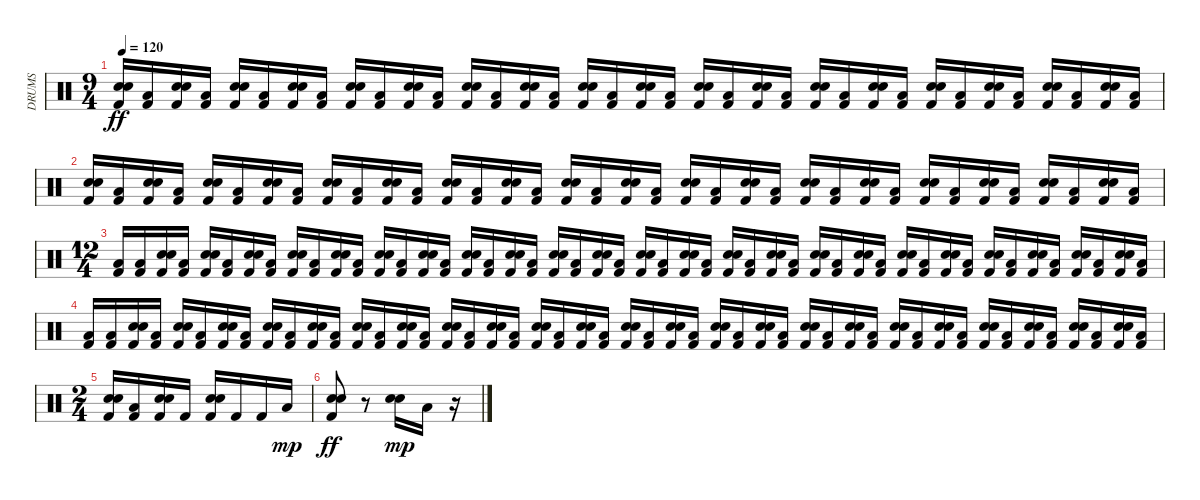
\track ("DRUMS" "DRUMS") {instrument percussion}
\staff {score}
\articulation defaults
\ts (9 4)
\tempo 120
\clef neutral
\ks c
("Electric Snare (hit)" "Hand Clap (hit)" "Kick (hit) 2").16{dy ff} ("Low Tom (hit)" "Kick (hit) 2").16 ("Electric Snare (hit)" "Hand Clap (hit)" "Kick (hit) 2").16 ("Low Tom (hit)" "Kick (hit) 2").16 ("Electric Snare (hit)" "Hand Clap (hit)" "Kick (hit) 2").16 ("Low Tom (hit)" "Kick (hit) 2").16 ("Electric Snare (hit)" "Hand Clap (hit)" "Kick (hit) 2").16 ("Low Tom (hit)" "Kick (hit) 2").16 ("Electric Snare (hit)" "Hand Clap (hit)" "Kick (hit) 2").16 ("Low Tom (hit)" "Kick (hit) 2").16 ("Electric Snare (hit)" "Hand Clap (hit)" "Kick (hit) 2").16 ("Low Tom (hit)" "Kick (hit) 2").16 ("Electric Snare (hit)" "Hand Clap (hit)" "Kick (hit) 2").16 ("Low Tom (hit)" "Kick (hit) 2").16 ("Electric Snare (hit)" "Hand Clap (hit)" "Kick (hit) 2").16 ("Low Tom (hit)" "Kick (hit) 2").16 ("Electric Snare (hit)" "Hand Clap (hit)" "Kick (hit) 2").16 ("Low Tom (hit)" "Kick (hit) 2").16 ("Electric Snare (hit)" "Hand Clap (hit)" "Kick (hit) 2").16 ("Low Tom (hit)" "Kick (hit) 2").16 ("Electric Snare (hit)" "Hand Clap (hit)" "Kick (hit) 2").16 ("Low Tom (hit)" "Kick (hit) 2").16 ("Electric Snare (hit)" "Hand Clap (hit)" "Kick (hit) 2").16 ("Low Tom (hit)" "Kick (hit) 2").16 ("Electric Snare (hit)" "Hand Clap (hit)" "Kick (hit) 2").16 ("Low Tom (hit)" "Kick (hit) 2").16 ("Electric Snare (hit)" "Hand Clap (hit)" "Kick (hit) 2").16 ("Low Tom (hit)" "Kick (hit) 2").16 ("Electric Snare (hit)" "Hand Clap (hit)" "Kick (hit) 2").16 ("Low Tom (hit)" "Kick (hit) 2").16 ("Electric Snare (hit)" "Hand Clap (hit)" "Kick (hit) 2").16 ("Low Tom (hit)" "Kick (hit) 2").16 ("Electric Snare (hit)" "Hand Clap (hit)" "Kick (hit) 2").16 ("Low Tom (hit)" "Kick (hit) 2").16 ("Electric Snare (hit)" "Hand Clap (hit)" "Kick (hit) 2").16 ("Low Tom (hit)" "Kick (hit) 2").16 |
("Electric Snare (hit)" "Hand Clap (hit)" "Kick (hit) 2").16 ("Low Tom (hit)" "Kick (hit) 2").16 ("Electric Snare (hit)" "Hand Clap (hit)" "Kick (hit) 2").16 ("Low Tom (hit)" "Kick (hit) 2").16 ("Electric Snare (hit)" "Hand Clap (hit)" "Kick (hit) 2").16 ("Low Tom (hit)" "Kick (hit) 2").16 ("Electric Snare (hit)" "Hand Clap (hit)" "Kick (hit) 2").16 ("Low Tom (hit)" "Kick (hit) 2").16 ("Electric Snare (hit)" "Hand Clap (hit)" "Kick (hit) 2").16 ("Low Tom (hit)" "Kick (hit) 2").16 ("Electric Snare (hit)" "Hand Clap (hit)" "Kick (hit) 2").16 ("Low Tom (hit)" "Kick (hit) 2").16 ("Electric Snare (hit)" "Hand Clap (hit)" "Kick (hit) 2").16 ("Low Tom (hit)" "Kick (hit) 2").16 ("Electric Snare (hit)" "Hand Clap (hit)" "Kick (hit) 2").16 ("Low Tom (hit)" "Kick (hit) 2").16 ("Electric Snare (hit)" "Hand Clap (hit)" "Kick (hit) 2").16 ("Low Tom (hit)" "Kick (hit) 2").16 ("Electric Snare (hit)" "Hand Clap (hit)" "Kick (hit) 2").16 ("Low Tom (hit)" "Kick (hit) 2").16 ("Electric Snare (hit)" "Hand Clap (hit)" "Kick (hit) 2").16 ("Low Tom (hit)" "Kick (hit) 2").16 ("Electric Snare (hit)" "Hand Clap (hit)" "Kick (hit) 2").16 ("Low Tom (hit)" "Kick (hit) 2").16 ("Electric Snare (hit)" "Hand Clap (hit)" "Kick (hit) 2").16 ("Low Tom (hit)" "Kick (hit) 2").16 ("Electric Snare (hit)" "Hand Clap (hit)" "Kick (hit) 2").16 ("Low Tom (hit)" "Kick (hit) 2").16 ("Electric Snare (hit)" "Hand Clap (hit)" "Kick (hit) 2").16 ("Low Tom (hit)" "Kick (hit) 2").16 ("Electric Snare (hit)" "Hand Clap (hit)" "Kick (hit) 2").16 ("Low Tom (hit)" "Kick (hit) 2").16 ("Electric Snare (hit)" "Hand Clap (hit)" "Kick (hit) 2").16 ("Low Tom (hit)" "Kick (hit) 2").16 ("Electric Snare (hit)" "Hand Clap (hit)" "Kick (hit) 2").16 ("Low Tom (hit)" "Kick (hit) 2").16 |
\ts (12 4)
("Low Tom (hit)" "Kick (hit) 2").16 ("Low Tom (hit)" "Kick (hit) 2").16 ("Electric Snare (hit)" "Hand Clap (hit)" "Kick (hit) 2").16 ("Low Tom (hit)" "Kick (hit) 2").16 ("Electric Snare (hit)" "Hand Clap (hit)" "Kick (hit) 2").16 ("Low Tom (hit)" "Kick (hit) 2").16 ("Electric Snare (hit)" "Hand Clap (hit)" "Kick (hit) 2").16 ("Low Tom (hit)" "Kick (hit) 2").16 ("Electric Snare (hit)" "Hand Clap (hit)" "Kick (hit) 2").16 ("Low Tom (hit)" "Kick (hit) 2").16 ("Electric Snare (hit)" "Hand Clap (hit)" "Kick (hit) 2").16 ("Low Tom (hit)" "Kick (hit) 2").16 ("Electric Snare (hit)" "Hand Clap (hit)" "Kick (hit) 2").16 ("Low Tom (hit)" "Kick (hit) 2").16 ("Electric Snare (hit)" "Hand Clap (hit)" "Kick (hit) 2").16 ("Low Tom (hit)" "Kick (hit) 2").16 ("Electric Snare (hit)" "Hand Clap (hit)" "Kick (hit) 2").16 ("Low Tom (hit)" "Kick (hit) 2").16 ("Electric Snare (hit)" "Hand Clap (hit)" "Kick (hit) 2").16 ("Low Tom (hit)" "Kick (hit) 2").16 ("Electric Snare (hit)" "Hand Clap (hit)" "Kick (hit) 2").16 ("Low Tom (hit)" "Kick (hit) 2").16 ("Electric Snare (hit)" "Hand Clap (hit)" "Kick (hit) 2").16 ("Low Tom (hit)" "Kick (hit) 2").16 ("Electric Snare (hit)" "Hand Clap (hit)" "Kick (hit) 2").16 ("Low Tom (hit)" "Kick (hit) 2").16 ("Electric Snare (hit)" "Hand Clap (hit)" "Kick (hit) 2").16 ("Low Tom (hit)" "Kick (hit) 2").16 ("Electric Snare (hit)" "Hand Clap (hit)" "Kick (hit) 2").16 ("Low Tom (hit)" "Kick (hit) 2").16 ("Electric Snare (hit)" "Hand Clap (hit)" "Kick (hit) 2").16 ("Low Tom (hit)" "Kick (hit) 2").16 ("Electric Snare (hit)" "Hand Clap (hit)" "Kick (hit) 2").16 ("Low Tom (hit)" "Kick (hit) 2").16 ("Electric Snare (hit)" "Hand Clap (hit)" "Kick (hit) 2").16 ("Low Tom (hit)" "Kick (hit) 2").16 ("Electric Snare (hit)" "Hand Clap (hit)" "Kick (hit) 2").16 ("Low Tom (hit)" "Kick (hit) 2").16 ("Electric Snare (hit)" "Hand Clap (hit)" "Kick (hit) 2").16 ("Low Tom (hit)" "Kick (hit) 2").16 ("Electric Snare (hit)" "Hand Clap (hit)" "Kick (hit) 2").16 ("Low Tom (hit)" "Kick (hit) 2").16 ("Electric Snare (hit)" "Hand Clap (hit)" "Kick (hit) 2").16 ("Low Tom (hit)" "Kick (hit) 2").16 ("Electric Snare (hit)" "Hand Clap (hit)" "Kick (hit) 2").16 ("Low Tom (hit)" "Kick (hit) 2").16 ("Electric Snare (hit)" "Hand Clap (hit)" "Kick (hit) 2").16 ("Low Tom (hit)" "Kick (hit) 2").16 |
("Low Tom (hit)" "Kick (hit) 2").16 ("Low Tom (hit)" "Kick (hit) 2").16 ("Electric Snare (hit)" "Hand Clap (hit)" "Kick (hit) 2").16 ("Low Tom (hit)" "Kick (hit) 2").16 ("Electric Snare (hit)" "Hand Clap (hit)" "Kick (hit) 2").16 ("Low Tom (hit)" "Kick (hit) 2").16 ("Electric Snare (hit)" "Hand Clap (hit)" "Kick (hit) 2").16 ("Low Tom (hit)" "Kick (hit) 2").16 ("Electric Snare (hit)" "Hand Clap (hit)" "Kick (hit) 2").16 ("Low Tom (hit)" "Kick (hit) 2").16 ("Electric Snare (hit)" "Hand Clap (hit)" "Kick (hit) 2").16 ("Low Tom (hit)" "Kick (hit) 2").16 ("Electric Snare (hit)" "Hand Clap (hit)" "Kick (hit) 2").16 ("Low Tom (hit)" "Kick (hit) 2").16 ("Electric Snare (hit)" "Hand Clap (hit)" "Kick (hit) 2").16 ("Low Tom (hit)" "Kick (hit) 2").16 ("Electric Snare (hit)" "Hand Clap (hit)" "Kick (hit) 2").16 ("Low Tom (hit)" "Kick (hit) 2").16 ("Electric Snare (hit)" "Hand Clap (hit)" "Kick (hit) 2").16 ("Low Tom (hit)" "Kick (hit) 2").16 ("Electric Snare (hit)" "Hand Clap (hit)" "Kick (hit) 2").16 ("Low Tom (hit)" "Kick (hit) 2").16 ("Electric Snare (hit)" "Hand Clap (hit)" "Kick (hit) 2").16 ("Low Tom (hit)" "Kick (hit) 2").16 ("Electric Snare (hit)" "Hand Clap (hit)" "Kick (hit) 2").16 ("Low Tom (hit)" "Kick (hit) 2").16 ("Electric Snare (hit)" "Hand Clap (hit)" "Kick (hit) 2").16 ("Low Tom (hit)" "Kick (hit) 2").16 ("Electric Snare (hit)" "Hand Clap (hit)" "Kick (hit) 2").16 ("Low Tom (hit)" "Kick (hit) 2").16 ("Electric Snare (hit)" "Hand Clap (hit)" "Kick (hit) 2").16 ("Low Tom (hit)" "Kick (hit) 2").16 ("Electric Snare (hit)" "Hand Clap (hit)" "Kick (hit) 2").16 ("Low Tom (hit)" "Kick (hit) 2").16 ("Electric Snare (hit)" "Hand Clap (hit)" "Kick (hit) 2").16 ("Low Tom (hit)" "Kick (hit) 2").16 ("Electric Snare (hit)" "Hand Clap (hit)" "Kick (hit) 2").16 ("Low Tom (hit)" "Kick (hit) 2").16 ("Electric Snare (hit)" "Hand Clap (hit)" "Kick (hit) 2").16 ("Low Tom (hit)" "Kick (hit) 2").16 ("Electric Snare (hit)" "Hand Clap (hit)" "Kick (hit) 2").16 ("Low Tom (hit)" "Kick (hit) 2").16 ("Electric Snare (hit)" "Hand Clap (hit)" "Kick (hit) 2").16 ("Low Tom (hit)" "Kick (hit) 2").16 ("Electric Snare (hit)" "Hand Clap (hit)" "Kick (hit) 2").16 ("Low Tom (hit)" "Kick (hit) 2").16 ("Electric Snare (hit)" "Hand Clap (hit)" "Kick (hit) 2").16 ("Low Tom (hit)" "Kick (hit) 2").16 |
\ts (2 4)
("Electric Snare (hit)" "Hand Clap (hit)" "Kick (hit) 2").16 ("Low Tom (hit)" "Kick (hit) 2").16 ("Electric Snare (hit)" "Hand Clap (hit)" "Kick (hit) 2").16 "Kick (hit) 2".16 ("Electric Snare (hit)" "Hand Clap (hit)" "Kick (hit) 2").16 "Kick (hit) 2".16 "Kick (hit) 2".16 "Low Tom (hit)".16{dy mp} |
("Electric Snare (hit)" "Hand Clap (hit)" "Kick (hit) 2").8{dy ff} r.8 ("Electric Snare (hit)" "Hand Clap (hit)").16{dy mp} "Low Tom (hit)".16 r.16
